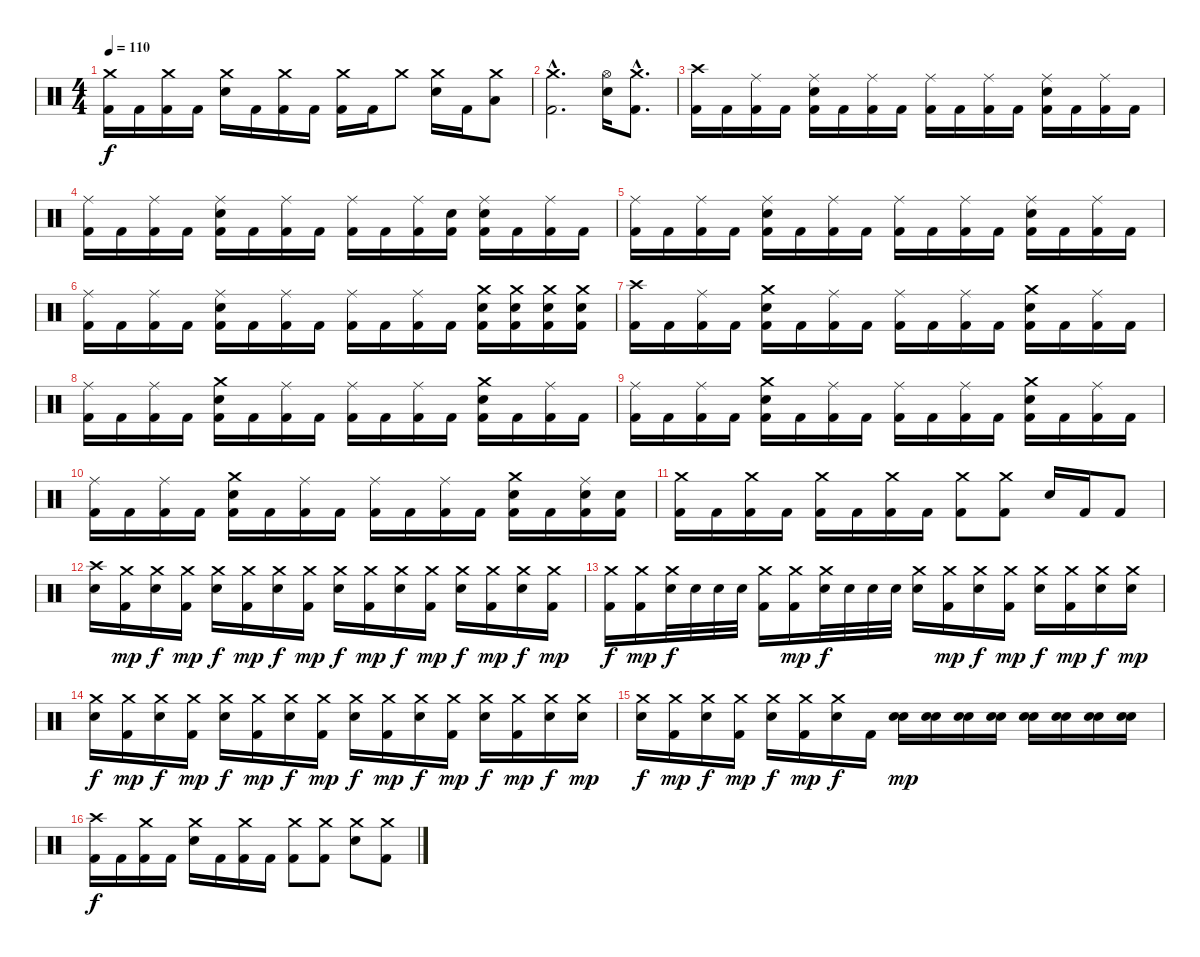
\track "" {instrument percussion}
\staff {score}
\articulation defaults
\ts (4 4)
\tempo 110
\clef neutral
\ks c
("Crash medium (hit)" "Kick (hit) 2").16{dy f} "Kick (hit) 2".16 ("Crash medium (hit)" "Kick (hit) 2").16 "Kick (hit) 2".16 ("Crash medium (hit)" "Electric Snare (hit)").16 "Kick (hit) 2".16 ("Crash medium (hit)" "Kick (hit) 2").16 "Kick (hit) 2".16 ("Crash medium (hit)" "Kick (hit) 2").16 "Kick (hit) 2".16 "Crash medium (hit)".8 ("Crash medium (hit)" "Electric Snare (hit)").16 "Kick (hit) 2".16 ("Crash medium (hit)" "Low Tom (hit)").8 |
("Crash medium (hit)"{hac} "Kick (hit) 2"{hac}).2{d} ("Hi-Hat (open)" "Electric Snare (hit)").16 ("Crash medium (hit)"{hac} "Kick (hit) 2"{hac}).8{d} |
("Crash high (hit)" "Kick (hit) 2").16 "Kick (hit) 2".16 ("Ride (middle)" "Kick (hit) 2").16 "Kick (hit) 2".16 ("Ride (middle)" "Electric Snare (hit)" "Kick (hit) 2").16 "Kick (hit) 2".16 ("Ride (middle)" "Kick (hit) 2").16 "Kick (hit) 2".16 ("Ride (middle)" "Kick (hit) 2").16 "Kick (hit) 2".16 ("Ride (middle)" "Kick (hit) 2").16 "Kick (hit) 2".16 ("Ride (middle)" "Electric Snare (hit)" "Kick (hit) 2").16 "Kick (hit) 2".16 ("Ride (middle)" "Kick (hit) 2").16 "Kick (hit) 2".16 |
("Ride (middle)" "Kick (hit) 2").16 "Kick (hit) 2".16 ("Ride (middle)" "Kick (hit) 2").16 "Kick (hit) 2".16 ("Ride (middle)" "Electric Snare (hit)" "Kick (hit) 2").16 "Kick (hit) 2".16 ("Ride (middle)" "Kick (hit) 2").16 "Kick (hit) 2".16 ("Ride (middle)" "Kick (hit) 2").16 "Kick (hit) 2".16 ("Ride (middle)" "Kick (hit) 2").16 ("Electric Snare (hit)" "Kick (hit) 2").16 ("Ride (middle)" "Electric Snare (hit)" "Kick (hit) 2").16 "Kick (hit) 2".16 ("Ride (middle)" "Kick (hit) 2").16 "Kick (hit) 2".16 |
("Ride (middle)" "Kick (hit) 2").16 "Kick (hit) 2".16 ("Ride (middle)" "Kick (hit) 2").16 "Kick (hit) 2".16 ("Ride (middle)" "Electric Snare (hit)" "Kick (hit) 2").16 "Kick (hit) 2".16 ("Ride (middle)" "Kick (hit) 2").16 "Kick (hit) 2".16 ("Ride (middle)" "Kick (hit) 2").16 "Kick (hit) 2".16 ("Ride (middle)" "Kick (hit) 2").16 "Kick (hit) 2".16 ("Ride (middle)" "Electric Snare (hit)" "Kick (hit) 2").16 "Kick (hit) 2".16 ("Ride (middle)" "Kick (hit) 2").16 "Kick (hit) 2".16 |
("Ride (middle)" "Kick (hit) 2").16 "Kick (hit) 2".16 ("Ride (middle)" "Kick (hit) 2").16 "Kick (hit) 2".16 ("Ride (middle)" "Electric Snare (hit)" "Kick (hit) 2").16 "Kick (hit) 2".16 ("Ride (middle)" "Kick (hit) 2").16 "Kick (hit) 2".16 ("Ride (middle)" "Kick (hit) 2").16 "Kick (hit) 2".16 ("Ride (middle)" "Kick (hit) 2").16 "Kick (hit) 2".16 ("Crash medium (hit)" "Electric Snare (hit)" "Kick (hit) 2").16 ("Crash medium (hit)" "Electric Snare (hit)" "Kick (hit) 2").16 ("Crash medium (hit)" "Electric Snare (hit)" "Kick (hit) 2").16 ("Crash medium (hit)" "Electric Snare (hit)" "Kick (hit) 2").16 |
("Crash high (hit)" "Kick (hit) 2").16 "Kick (hit) 2".16 ("Ride (middle)" "Kick (hit) 2").16 "Kick (hit) 2".16 ("Crash medium (hit)" "Electric Snare (hit)" "Kick (hit) 2").16 "Kick (hit) 2".16 ("Ride (middle)" "Kick (hit) 2").16 "Kick (hit) 2".16 ("Ride (middle)" "Kick (hit) 2").16 "Kick (hit) 2".16 ("Ride (middle)" "Kick (hit) 2").16 "Kick (hit) 2".16 ("Crash medium (hit)" "Electric Snare (hit)" "Kick (hit) 2").16 "Kick (hit) 2".16 ("Ride (middle)" "Kick (hit) 2").16 "Kick (hit) 2".16 |
("Ride (middle)" "Kick (hit) 2").16 "Kick (hit) 2".16 ("Ride (middle)" "Kick (hit) 2").16 "Kick (hit) 2".16 ("Crash medium (hit)" "Electric Snare (hit)" "Kick (hit) 2").16 "Kick (hit) 2".16 ("Ride (middle)" "Kick (hit) 2").16 "Kick (hit) 2".16 ("Ride (middle)" "Kick (hit) 2").16 "Kick (hit) 2".16 ("Ride (middle)" "Kick (hit) 2").16 "Kick (hit) 2".16 ("Crash medium (hit)" "Electric Snare (hit)" "Kick (hit) 2").16 "Kick (hit) 2".16 ("Ride (middle)" "Kick (hit) 2").16 "Kick (hit) 2".16 |
("Ride (middle)" "Kick (hit) 2").16 "Kick (hit) 2".16 ("Ride (middle)" "Kick (hit) 2").16 "Kick (hit) 2".16 ("Crash medium (hit)" "Electric Snare (hit)" "Kick (hit) 2").16 "Kick (hit) 2".16 ("Ride (middle)" "Kick (hit) 2").16 "Kick (hit) 2".16 ("Ride (middle)" "Kick (hit) 2").16 "Kick (hit) 2".16 ("Ride (middle)" "Kick (hit) 2").16 "Kick (hit) 2".16 ("Crash medium (hit)" "Electric Snare (hit)" "Kick (hit) 2").16 "Kick (hit) 2".16 ("Ride (middle)" "Kick (hit) 2").16 "Kick (hit) 2".16 |
("Ride (middle)" "Kick (hit) 2").16 "Kick (hit) 2".16 ("Ride (middle)" "Kick (hit) 2").16 "Kick (hit) 2".16 ("Crash medium (hit)" "Electric Snare (hit)" "Kick (hit) 2").16 "Kick (hit) 2".16 ("Ride (middle)" "Kick (hit) 2").16 "Kick (hit) 2".16 ("Ride (middle)" "Kick (hit) 2").16 "Kick (hit) 2".16 ("Ride (middle)" "Kick (hit) 2").16 "Kick (hit) 2".16 ("Crash medium (hit)" "Electric Snare (hit)" "Kick (hit) 2").16 "Kick (hit) 2".16 ("Ride (middle)" "Electric Snare (hit)" "Kick (hit) 2").16 ("Electric Snare (hit)" "Kick (hit) 2").16 |
("Crash medium (hit)" "Kick (hit) 2").16 "Kick (hit) 2".16 ("Crash medium (hit)" "Kick (hit) 2").16 "Kick (hit) 2".16 ("Crash medium (hit)" "Kick (hit) 2").16 "Kick (hit) 2".16 ("Crash medium (hit)" "Kick (hit) 2").16 "Kick (hit) 2".16 ("Crash medium (hit)" "Kick (hit) 2").8 ("Crash medium (hit)" "Kick (hit) 2").8 "Electric Snare (hit)".16 "Kick (hit) 2".16 "Kick (hit) 2".8 |
("Crash high (hit)" "Electric Snare (hit)").16 ("Crash medium (hit)" "Kick (hit) 2").16{dy mp} ("Crash medium (hit)" "Electric Snare (hit)").16{dy f} ("Crash medium (hit)" "Kick (hit) 2").16{dy mp} ("Crash medium (hit)" "Electric Snare (hit)").16{dy f} ("Crash medium (hit)" "Kick (hit) 2").16{dy mp} ("Crash medium (hit)" "Electric Snare (hit)").16{dy f} ("Crash medium (hit)" "Kick (hit) 2").16{dy mp} ("Crash medium (hit)" "Electric Snare (hit)").16{dy f} ("Crash medium (hit)" "Kick (hit) 2").16{dy mp} ("Crash medium (hit)" "Electric Snare (hit)").16{dy f} ("Crash medium (hit)" "Kick (hit) 2").16{dy mp} ("Crash medium (hit)" "Electric Snare (hit)").16{dy f} ("Crash medium (hit)" "Kick (hit) 2").16{dy mp} ("Crash medium (hit)" "Electric Snare (hit)").16{dy f} ("Crash medium (hit)" "Kick (hit) 2").16{dy mp} |
("Crash medium (hit)" "Kick (hit) 2").16{dy f} ("Crash medium (hit)" "Kick (hit) 2").16{dy mp} ("Crash medium (hit)" "Electric Snare (hit)").32{dy f} "Electric Snare (hit)".32 "Electric Snare (hit)".32 "Electric Snare (hit)".32 ("Crash medium (hit)" "Kick (hit) 2").16 ("Crash medium (hit)" "Kick (hit) 2").16{dy mp} ("Crash medium (hit)" "Electric Snare (hit)").32{dy f} "Electric Snare (hit)".32 "Electric Snare (hit)".32 "Electric Snare (hit)".32 ("Crash medium (hit)" "Electric Snare (hit)").16 ("Crash medium (hit)" "Kick (hit) 2").16{dy mp} ("Crash medium (hit)" "Electric Snare (hit)").16{dy f} ("Crash medium (hit)" "Kick (hit) 2").16{dy mp} ("Crash medium (hit)" "Electric Snare (hit)").16{dy f} ("Crash medium (hit)" "Kick (hit) 2").16{dy mp} ("Crash medium (hit)" "Electric Snare (hit)").16{dy f} ("Crash medium (hit)" "Electric Snare (hit)").16{dy mp} |
("Crash medium (hit)" "Electric Snare (hit)").16{dy f} ("Crash medium (hit)" "Kick (hit) 2").16{dy mp} ("Crash medium (hit)" "Electric Snare (hit)").16{dy f} ("Crash medium (hit)" "Kick (hit) 2").16{dy mp} ("Crash medium (hit)" "Electric Snare (hit)").16{dy f} ("Crash medium (hit)" "Kick (hit) 2").16{dy mp} ("Crash medium (hit)" "Electric Snare (hit)").16{dy f} ("Crash medium (hit)" "Kick (hit) 2").16{dy mp} ("Crash medium (hit)" "Electric Snare (hit)").16{dy f} ("Crash medium (hit)" "Kick (hit) 2").16{dy mp} ("Crash medium (hit)" "Electric Snare (hit)").16{dy f} ("Crash medium (hit)" "Kick (hit) 2").16{dy mp} ("Crash medium (hit)" "Electric Snare (hit)").16{dy f} ("Crash medium (hit)" "Kick (hit) 2").16{dy mp} ("Crash medium (hit)" "Electric Snare (hit)").16{dy f} ("Crash medium (hit)" "Electric Snare (hit)").16{dy mp} |
("Crash medium (hit)" "Electric Snare (hit)").16{dy f} ("Crash medium (hit)" "Kick (hit) 2").16{dy mp} ("Crash medium (hit)" "Electric Snare (hit)").16{dy f} ("Crash medium (hit)" "Kick (hit) 2").16{dy mp} ("Crash medium (hit)" "Electric Snare (hit)").16{dy f} ("Crash medium (hit)" "Kick (hit) 2").16{dy mp} ("Crash medium (hit)" "Electric Snare (hit)").16{dy f} "Kick (hit) 2".16 ("Electric Snare (hit)" "Snare (hit) 2").16{dy mp} ("Electric Snare (hit)" "Snare (hit) 2").16 ("Electric Snare (hit)" "Snare (hit) 2").16 ("Electric Snare (hit)" "Snare (hit) 2").16 ("Electric Snare (hit)" "Snare (hit) 2").16 ("Electric Snare (hit)" "Snare (hit) 2").16 ("Electric Snare (hit)" "Snare (hit) 2").16 ("Electric Snare (hit)" "Snare (hit) 2").16 |
("Crash high (hit)" "Kick (hit) 2").16{dy f} "Kick (hit) 2".16 ("Crash medium (hit)" "Kick (hit) 2").16 "Kick (hit) 2".16 ("Crash medium (hit)" "Electric Snare (hit)").16 "Kick (hit) 2".16 ("Crash medium (hit)" "Kick (hit) 2").16 "Kick (hit) 2".16 ("Crash medium (hit)" "Kick (hit) 2").8 ("Crash medium (hit)" "Kick (hit) 2").8 ("Crash medium (hit)" "Electric Snare (hit)").8 ("Crash medium (hit)" "Kick (hit) 2").8
